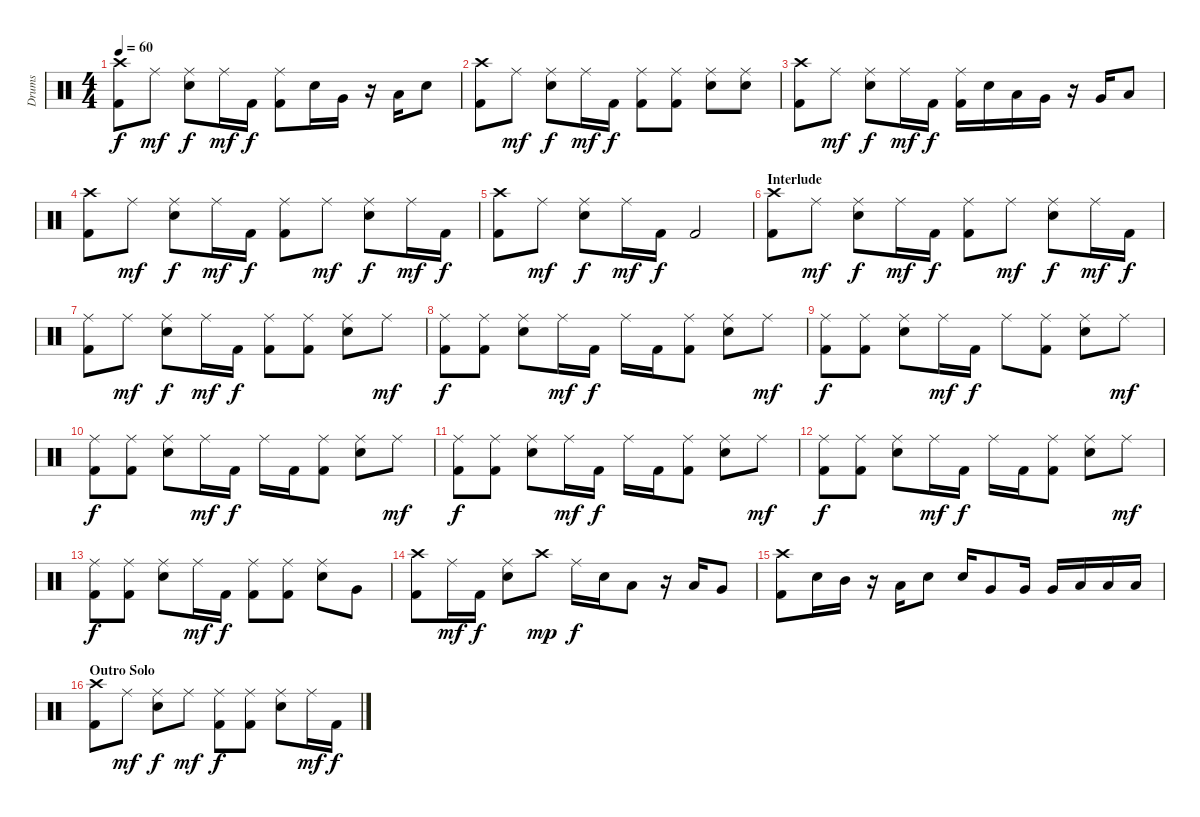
\track ("Drums" "Drums") {instrument percussion}
\staff {score}
\articulation defaults
\ts (4 4)
\tempo 60
\clef neutral
\ks c
("Crash high (hit)" "Kick (hit) 2").8{dy f} "Ride (middle)".8{dy mf} ("Ride (middle)" "Electric Snare (hit)").8{dy f} "Ride (middle)".16{dy mf} "Kick (hit) 2".16{dy f} ("Ride (middle)" "Kick (hit) 2").8 "Electric Snare (hit)".16 "Very Low Tom (hit)".16 r.16 "Low Tom (hit)".16 "Electric Snare (hit)".8 |
("Crash high (hit)" "Kick (hit) 2").8 "Ride (middle)".8{dy mf} ("Ride (middle)" "Electric Snare (hit)").8{dy f} "Ride (middle)".16{dy mf} "Kick (hit) 2".16{dy f} ("Ride (middle)" "Kick (hit) 2").8 ("Ride (middle)" "Kick (hit) 2").8 ("Ride (middle)" "Electric Snare (hit)").8 ("Ride (middle)" "Electric Snare (hit)").8 |
("Crash high (hit)" "Kick (hit) 2").8 "Ride (middle)".8{dy mf} ("Ride (middle)" "Electric Snare (hit)").8{dy f} "Ride (middle)".16{dy mf} "Kick (hit) 2".16{dy f} ("Ride (middle)" "Kick (hit) 2").16 "Electric Snare (hit)".16 "Low Tom (hit)".16 "Very Low Tom (hit)".16 r.16 "Very Low Tom (hit)".16 "Low Floor Tom (hit)".8 |
("Crash high (hit)" "Kick (hit) 2").8 "Ride (middle)".8{dy mf} ("Ride (middle)" "Electric Snare (hit)").8{dy f} "Ride (middle)".16{dy mf} "Kick (hit) 2".16{dy f} ("Ride (middle)" "Kick (hit) 2").8 "Ride (middle)".8{dy mf} ("Ride (middle)" "Electric Snare (hit)").8{dy f} "Ride (middle)".16{dy mf} "Kick (hit) 2".16{dy f} |
("Crash high (hit)" "Kick (hit) 2").8 "Ride (middle)".8{dy mf} ("Ride (middle)" "Electric Snare (hit)").8{dy f} "Ride (middle)".16{dy mf} "Kick (hit) 2".16{dy f} "Kick (hit) 2".2 |
\section ("" "Interlude")
("Crash high (hit)" "Kick (hit) 2").8 "Ride (middle)".8{dy mf} ("Ride (middle)" "Electric Snare (hit)").8{dy f} "Ride (middle)".16{dy mf} "Kick (hit) 2".16{dy f} ("Ride (middle)" "Kick (hit) 2").8 "Ride (middle)".8{dy mf} ("Ride (middle)" "Electric Snare (hit)").8{dy f} "Ride (middle)".16{dy mf} "Kick (hit) 2".16{dy f} |
("Ride (middle)" "Kick (hit) 2").8 "Ride (middle)".8{dy mf} ("Ride (middle)" "Electric Snare (hit)").8{dy f} "Ride (middle)".16{dy mf} "Kick (hit) 2".16{dy f} ("Ride (middle)" "Kick (hit) 2").8 ("Ride (middle)" "Kick (hit) 2").8 ("Ride (middle)" "Electric Snare (hit)").8 "Ride (middle)".8{dy mf} |
("Ride (middle)" "Kick (hit) 2").8{dy f} ("Ride (middle)" "Kick (hit) 2").8 ("Ride (middle)" "Electric Snare (hit)").8 "Ride (middle)".16{dy mf} "Kick (hit) 2".16{dy f} "Ride (middle)".16 "Kick (hit) 2".16 ("Ride (middle)" "Kick (hit) 2").8 ("Ride (middle)" "Electric Snare (hit)").8 "Ride (middle)".8{dy mf} |
("Ride (middle)" "Kick (hit) 2").8{dy f} ("Ride (middle)" "Kick (hit) 2").8 ("Ride (middle)" "Electric Snare (hit)").8 "Ride (middle)".16{dy mf} "Kick (hit) 2".16{dy f} "Ride (middle)".8 ("Ride (middle)" "Kick (hit) 2").8 ("Ride (middle)" "Electric Snare (hit)").8 "Ride (middle)".8{dy mf} |
("Ride (middle)" "Kick (hit) 2").8{dy f} ("Ride (middle)" "Kick (hit) 2").8 ("Ride (middle)" "Electric Snare (hit)").8 "Ride (middle)".16{dy mf} "Kick (hit) 2".16{dy f} "Ride (middle)".16 "Kick (hit) 2".16 ("Ride (middle)" "Kick (hit) 2").8 ("Ride (middle)" "Electric Snare (hit)").8 "Ride (middle)".8{dy mf} |
("Ride (middle)" "Kick (hit) 2").8{dy f} ("Ride (middle)" "Kick (hit) 2").8 ("Ride (middle)" "Electric Snare (hit)").8 "Ride (middle)".16{dy mf} "Kick (hit) 2".16{dy f} "Ride (middle)".16 "Kick (hit) 2".16 ("Ride (middle)" "Kick (hit) 2").8 ("Ride (middle)" "Electric Snare (hit)").8 "Ride (middle)".8{dy mf} |
("Ride (middle)" "Kick (hit) 2").8{dy f} ("Ride (middle)" "Kick (hit) 2").8 ("Ride (middle)" "Electric Snare (hit)").8 "Ride (middle)".16{dy mf} "Kick (hit) 2".16{dy f} "Ride (middle)".16 "Kick (hit) 2".16 ("Ride (middle)" "Kick (hit) 2").8 ("Ride (middle)" "Electric Snare (hit)").8 "Ride (middle)".8{dy mf} |
("Ride (middle)" "Kick (hit) 2").8{dy f} ("Ride (middle)" "Kick (hit) 2").8 ("Ride (middle)" "Electric Snare (hit)").8 "Ride (middle)".16{dy mf} "Kick (hit) 2".16{dy f} ("Ride (middle)" "Kick (hit) 2").8 ("Ride (middle)" "Kick (hit) 2").8 ("Ride (middle)" "Electric Snare (hit)").8 "Very Low Tom (hit)".8 |
("Crash high (hit)" "Kick (hit) 2").8 "Ride (middle)".16{dy mf} "Kick (hit) 2".16{dy f} ("Ride (middle)" "Electric Snare (hit)").8 "Crash high (hit)".8{dy mp} "Ride (middle)".16{dy f} "Electric Snare (hit)".16 "Low Tom (hit)".8 r.16 "Low Tom (hit)".16 "Very Low Tom (hit)".8 |
("Crash high (hit)" "Kick (hit) 2").8 "Electric Snare (hit)".16 "Mid Tom (hit)".16 r.16 "Low Tom (hit)".16 "Electric Snare (hit)".8 "Electric Snare (hit)".16 "Very Low Tom (hit)".8 "Very Low Tom (hit)".16 "Very Low Tom (hit)".16 "Low Floor Tom (hit)".16 "Low Floor Tom (hit)".16 "Low Floor Tom (hit)".16 |
\section ("" "Outro Solo")
("Crash high (hit)" "Kick (hit) 2").8 "Ride (middle)".8{dy mf} ("Ride (middle)" "Electric Snare (hit)").8{dy f} "Ride (middle)".8{dy mf} ("Ride (middle)" "Kick (hit) 2").8{dy f} ("Ride (middle)" "Kick (hit) 2").8 ("Ride (middle)" "Electric Snare (hit)").8 "Ride (middle)".16{dy mf} "Kick (hit) 2".16{dy f}
